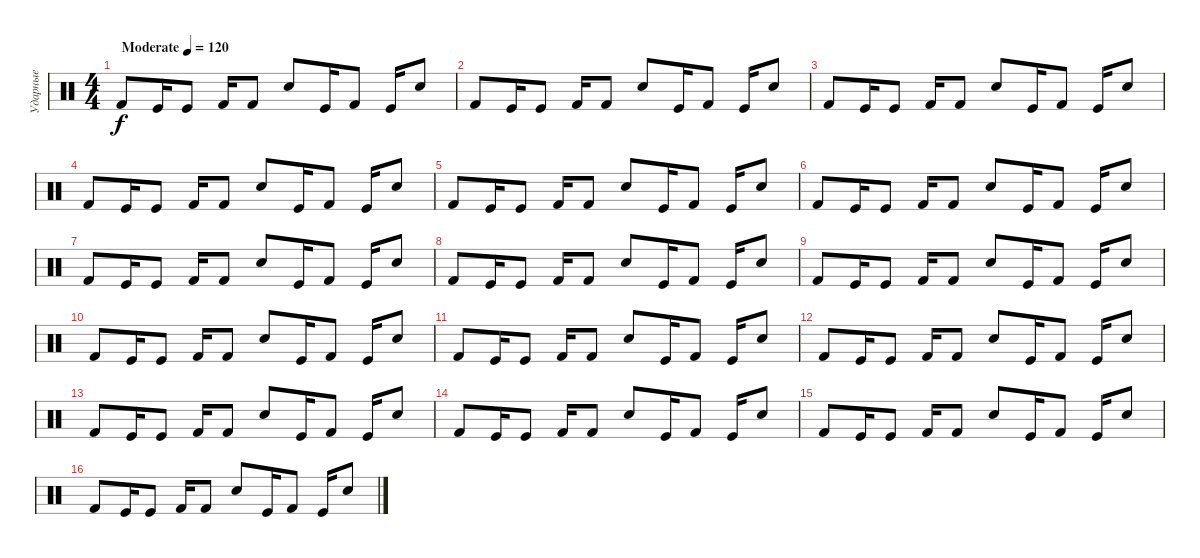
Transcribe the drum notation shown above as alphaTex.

\track ("Ударные" "Ударные") {instrument percussion}
\staff {score}
\articulation defaults
\ts (4 4)
\tempo (120 "Moderate")
\clef neutral
\ks c "Kick (hit) 2".8{dy f} "Kick (hit)".16 "Kick (hit)".8 "Kick (hit) 2".16 "Kick (hit) 2".8 "Hand Clap (hit)".8 "Kick (hit)".16 "Kick (hit) 2".8 "Kick (hit)".16 "Snare (hit) 2".8
|
"Kick (hit) 2".8 "Kick (hit)".16 "Kick (hit)".8 "Kick (hit) 2".16 "Kick (hit) 2".8 "Hand Clap (hit)".8 "Kick (hit)".16 "Kick (hit) 2".8 "Kick (hit)".16 "Snare (hit) 2".8 |
"Kick (hit) 2".8 "Kick (hit)".16 "Kick (hit)".8 "Kick (hit) 2".16 "Kick (hit) 2".8 "Hand Clap (hit)".8 "Kick (hit)".16 "Kick (hit) 2".8 "Kick (hit)".16 "Snare (hit) 2".8 |
"Kick (hit) 2".8 "Kick (hit)".16 "Kick (hit)".8 "Kick (hit) 2".16 "Kick (hit) 2".8 "Hand Clap (hit)".8 "Kick (hit)".16 "Kick (hit) 2".8 "Kick (hit)".16 "Snare (hit) 2".8 |
"Kick (hit) 2".8 "Kick (hit)".16 "Kick (hit)".8 "Kick (hit) 2".16 "Kick (hit) 2".8 "Hand Clap (hit)".8 "Kick (hit)".16 "Kick (hit) 2".8 "Kick (hit)".16 "Snare (hit) 2".8 |
"Kick (hit) 2".8 "Kick (hit)".16 "Kick (hit)".8 "Kick (hit) 2".16 "Kick (hit) 2".8 "Hand Clap (hit)".8 "Kick (hit)".16 "Kick (hit) 2".8 "Kick (hit)".16 "Snare (hit) 2".8 |
"Kick (hit) 2".8 "Kick (hit)".16 "Kick (hit)".8 "Kick (hit) 2".16 "Kick (hit) 2".8 "Hand Clap (hit)".8 "Kick (hit)".16 "Kick (hit) 2".8 "Kick (hit)".16 "Snare (hit) 2".8 |
"Kick (hit) 2".8 "Kick (hit)".16 "Kick (hit)".8 "Kick (hit) 2".16 "Kick (hit) 2".8 "Hand Clap (hit)".8 "Kick (hit)".16 "Kick (hit) 2".8 "Kick (hit)".16 "Snare (hit) 2".8 |
"Kick (hit) 2".8 "Kick (hit)".16 "Kick (hit)".8 "Kick (hit) 2".16 "Kick (hit) 2".8 "Hand Clap (hit)".8 "Kick (hit)".16 "Kick (hit) 2".8 "Kick (hit)".16 "Snare (hit) 2".8 |
"Kick (hit) 2".8 "Kick (hit)".16 "Kick (hit)".8 "Kick (hit) 2".16 "Kick (hit) 2".8 "Hand Clap (hit)".8 "Kick (hit)".16 "Kick (hit) 2".8 "Kick (hit)".16 "Snare (hit) 2".8 |
"Kick (hit) 2".8 "Kick (hit)".16 "Kick (hit)".8 "Kick (hit) 2".16 "Kick (hit) 2".8 "Hand Clap (hit)".8 "Kick (hit)".16 "Kick (hit) 2".8 "Kick (hit)".16 "Snare (hit) 2".8 |
"Kick (hit) 2".8 "Kick (hit)".16 "Kick (hit)".8 "Kick (hit) 2".16 "Kick (hit) 2".8 "Hand Clap (hit)".8 "Kick (hit)".16 "Kick (hit) 2".8 "Kick (hit)".16 "Snare (hit) 2".8 |
"Kick (hit) 2".8 "Kick (hit)".16 "Kick (hit)".8 "Kick (hit) 2".16 "Kick (hit) 2".8 "Hand Clap (hit)".8 "Kick (hit)".16 "Kick (hit) 2".8 "Kick (hit)".16 "Snare (hit) 2".8 |
"Kick (hit) 2".8 "Kick (hit)".16 "Kick (hit)".8 "Kick (hit) 2".16 "Kick (hit) 2".8 "Hand Clap (hit)".8 "Kick (hit)".16 "Kick (hit) 2".8 "Kick (hit)".16 "Snare (hit) 2".8 |
"Kick (hit) 2".8 "Kick (hit)".16 "Kick (hit)".8 "Kick (hit) 2".16 "Kick (hit) 2".8 "Hand Clap (hit)".8 "Kick (hit)".16 "Kick (hit) 2".8 "Kick (hit)".16 "Snare (hit) 2".8 |
"Kick (hit) 2".8 "Kick (hit)".16 "Kick (hit)".8 "Kick (hit) 2".16 "Kick (hit) 2".8 "Hand Clap (hit)".8 "Kick (hit)".16 "Kick (hit) 2".8 "Kick (hit)".16 "Snare (hit) 2".8
